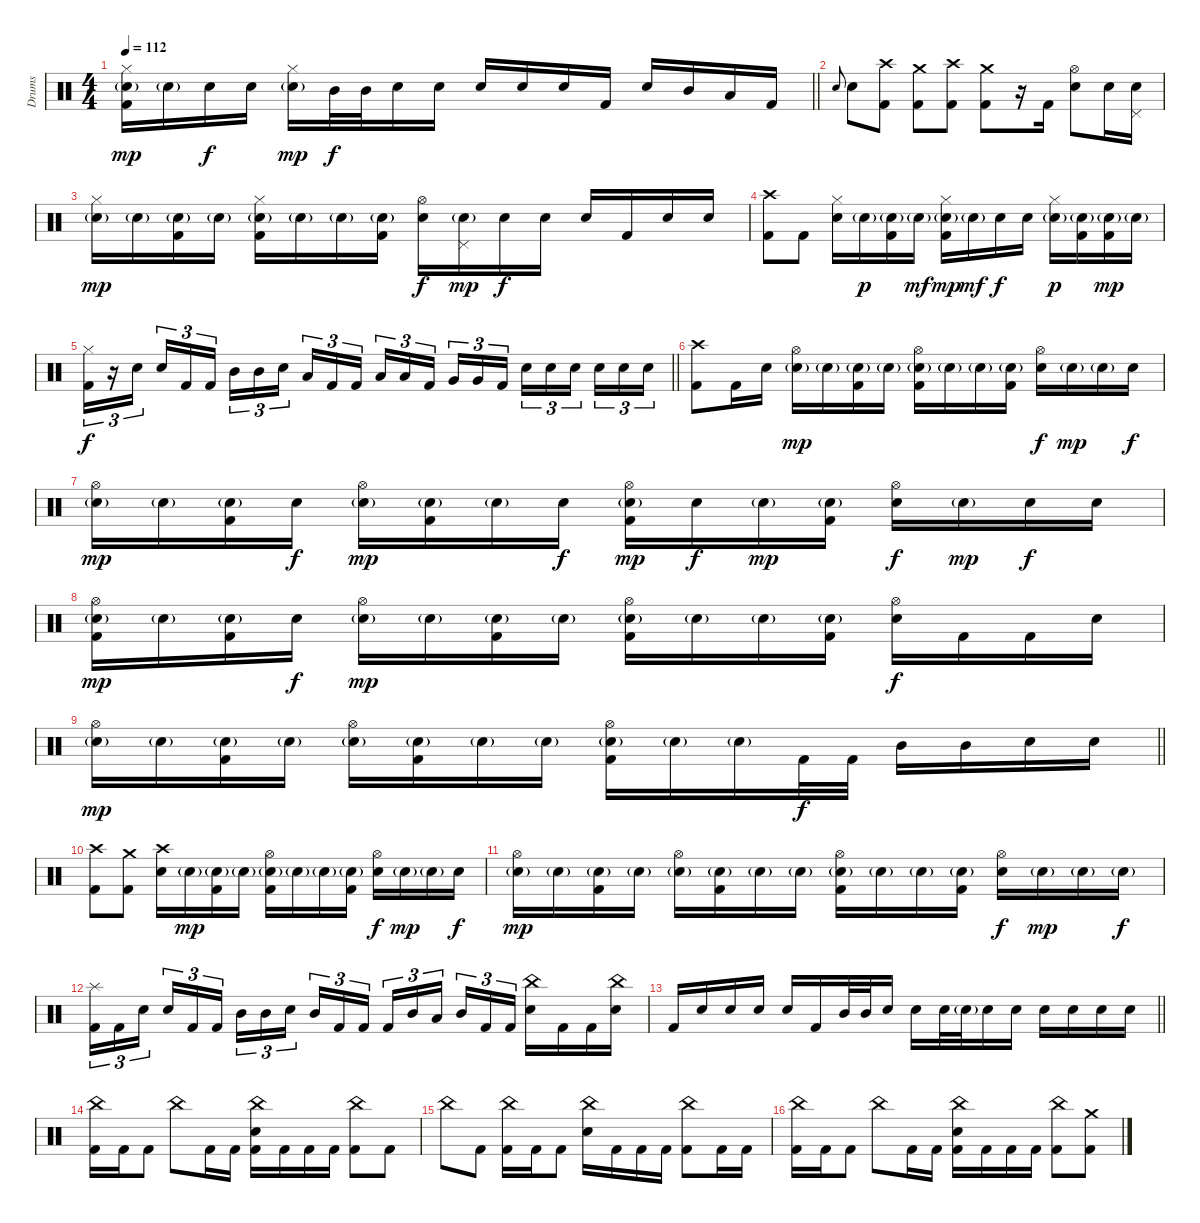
\track ("Drums" "Drums") {instrument percussion}
\staff {score}
\articulation defaults
\ts (4 4)
\tempo 112
\clef neutral
\barLineRight lightlight
\ks c
("Hi-Hat (closed)" "Electric Snare (hit)"{g} "Kick (hit) 2").16{dy mp} "Electric Snare (hit)"{g}.16 "Electric Snare (hit)".16{dy f} "Electric Snare (hit)".16 ("Hi-Hat (closed)" "Electric Snare (hit)"{g}).16{dy mp} "Mid Tom (hit)".32{dy f} "Mid Tom (hit)".32 "Electric Snare (hit)".16 "Electric Snare (hit)".16 "Electric Snare (hit)".16 "Electric Snare (hit)".16 "Electric Snare (hit)".16 "Kick (hit) 2".16 "Electric Snare (hit)".16 "Mid Tom (hit)".16 "Low Tom (hit)".16 "Kick (hit) 2".16 |
"Electric Snare (hit)".8{gr onbeat} "Electric Snare (hit)".8 ("Crash high (hit)" "Kick (hit) 2").8 ("Crash medium (hit)" "Kick (hit) 2").8 ("Crash high (hit)" "Kick (hit) 2").8 ("Crash medium (hit)" "Kick (hit) 2").8 r.16 "Kick (hit) 2".16 ("Hi-Hat (open)" "Electric Snare (hit)").8 "Electric Snare (hit)".16 ("Pedal Hi-Hat (hit)" "Electric Snare (hit)").16 |
("Hi-Hat (closed)" "Electric Snare (hit)"{g}).16{dy mp} "Electric Snare (hit)"{g}.16 ("Electric Snare (hit)"{g} "Kick (hit) 2").16 "Electric Snare (hit)"{g}.16 ("Hi-Hat (closed)" "Electric Snare (hit)"{g} "Kick (hit) 2").16 "Electric Snare (hit)"{g}.16 "Electric Snare (hit)"{g}.16 ("Electric Snare (hit)"{g} "Kick (hit) 2").16 ("Hi-Hat (open)" "Electric Snare (hit)").16{dy f} ("Pedal Hi-Hat (hit)" "Electric Snare (hit)"{g}).16{dy mp} "Electric Snare (hit)".16{dy f} "Electric Snare (hit)".16 "Electric Snare (hit)".16 "Kick (hit) 2".16 "Electric Snare (hit)".16 "Electric Snare (hit)".16 |
("Crash high (hit)" "Kick (hit) 2").8 "Kick (hit) 2".8 ("Hi-Hat (closed)" "Electric Snare (hit)").16 "Electric Snare (hit)"{g}.16{dy p} ("Electric Snare (hit)"{g} "Kick (hit) 2").16 "Electric Snare (hit)"{g}.16{dy mf} ("Hi-Hat (closed)" "Electric Snare (hit)"{g} "Kick (hit) 2").16{dy mp} "Electric Snare (hit)"{g}.16{dy mf} "Electric Snare (hit)".16{dy f} "Electric Snare (hit)".16 ("Hi-Hat (closed)" "Electric Snare (hit)"{g}).16{dy p} ("Electric Snare (hit)"{g} "Kick (hit) 2").16 ("Electric Snare (hit)"{g} "Kick (hit) 2").16{dy mp} "Electric Snare (hit)"{g}.16 |
\barLineRight lightlight
("Hi-Hat (closed)" "Kick (hit) 2").16{tu (3 2) dy f} r.16{tu (3 2)} "Electric Snare (hit)".16{tu (3 2) beam splitsecondary} "Electric Snare (hit)".16{tu (3 2)} "Kick (hit) 2".16{tu (3 2)} "Kick (hit) 2".16{tu (3 2)} "Mid Tom (hit)".16{tu (3 2)} "Mid Tom (hit)".16{tu (3 2)} "Electric Snare (hit)".16{tu (3 2) beam splitsecondary} "Low Tom (hit)".16{tu (3 2)} "Kick (hit) 2".16{tu (3 2)} "Kick (hit) 2".16{tu (3 2)} "Low Tom (hit)".16{tu (3 2)} "Low Tom (hit)".16{tu (3 2)} "Kick (hit) 2".16{tu (3 2) beam splitsecondary} "Very Low Tom (hit)".16{tu (3 2)} "Very Low Tom (hit)".16{tu (3 2)} "Kick (hit) 2".16{tu (3 2)} "Electric Snare (hit)".16{tu (3 2)} "Electric Snare (hit)".16{tu (3 2)} "Electric Snare (hit)".16{tu (3 2) beam splitsecondary} "Electric Snare (hit)".16{tu (3 2)} "Electric Snare (hit)".16{tu (3 2)} "Electric Snare (hit)".16{tu (3 2)} |
("Crash high (hit)" "Kick (hit) 2").8 "Kick (hit) 2".16 "Electric Snare (hit)".16 ("Hi-Hat (open)" "Electric Snare (hit)"{g}).16{dy mp} "Electric Snare (hit)"{g}.16 ("Electric Snare (hit)"{g} "Kick (hit) 2").16 "Electric Snare (hit)"{g}.16 ("Hi-Hat (open)" "Electric Snare (hit)"{g} "Kick (hit) 2").16 "Electric Snare (hit)"{g}.16 "Electric Snare (hit)"{g}.16 ("Electric Snare (hit)"{g} "Kick (hit) 2").16 ("Hi-Hat (open)" "Electric Snare (hit)").16{dy f} "Electric Snare (hit)"{g}.16{dy mp} "Electric Snare (hit)"{g}.16 "Electric Snare (hit)".16{dy f} |
("Hi-Hat (open)" "Electric Snare (hit)"{g}).16{dy mp} "Electric Snare (hit)"{g}.16 ("Electric Snare (hit)"{g} "Kick (hit) 2").16 "Electric Snare (hit)".16{dy f} ("Hi-Hat (open)" "Electric Snare (hit)"{g}).16{dy mp} ("Electric Snare (hit)"{g} "Kick (hit) 2").16 "Electric Snare (hit)"{g}.16 "Electric Snare (hit)".16{dy f} ("Hi-Hat (open)" "Electric Snare (hit)"{g} "Kick (hit) 2").16{dy mp} "Electric Snare (hit)".16{dy f} "Electric Snare (hit)"{g}.16{dy mp} ("Electric Snare (hit)"{g} "Kick (hit) 2").16 ("Hi-Hat (open)" "Electric Snare (hit)").16{dy f} "Electric Snare (hit)"{g}.16{dy mp} "Electric Snare (hit)".16{dy f} "Electric Snare (hit)".16 |
("Hi-Hat (open)" "Electric Snare (hit)"{g} "Kick (hit) 2").16{dy mp} "Electric Snare (hit)"{g}.16 ("Electric Snare (hit)"{g} "Kick (hit) 2").16 "Electric Snare (hit)".16{dy f} ("Hi-Hat (open)" "Electric Snare (hit)"{g}).16{dy mp} "Electric Snare (hit)"{g}.16 ("Electric Snare (hit)"{g} "Kick (hit) 2").16 "Electric Snare (hit)"{g}.16 ("Hi-Hat (open)" "Electric Snare (hit)"{g} "Kick (hit) 2").16 "Electric Snare (hit)"{g}.16 "Electric Snare (hit)"{g}.16 ("Electric Snare (hit)"{g} "Kick (hit) 2").16 ("Hi-Hat (open)" "Electric Snare (hit)").16{dy f} "Kick (hit) 2".16 "Kick (hit) 2".16 "Electric Snare (hit)".16 |
\barLineRight lightlight
("Hi-Hat (open)" "Electric Snare (hit)"{g}).16{dy mp} "Electric Snare (hit)"{g}.16 ("Electric Snare (hit)"{g} "Kick (hit) 2").16 "Electric Snare (hit)"{g}.16 ("Hi-Hat (open)" "Electric Snare (hit)"{g}).16 ("Electric Snare (hit)"{g} "Kick (hit) 2").16 "Electric Snare (hit)"{g}.16 "Electric Snare (hit)"{g}.16 ("Hi-Hat (open)" "Electric Snare (hit)"{g} "Kick (hit) 2").16 "Electric Snare (hit)"{g}.16 "Electric Snare (hit)"{g}.16 "Kick (hit) 2".32{dy f} "Kick (hit) 2".32 "Mid Tom (hit)".16 "Mid Tom (hit)".16 "Electric Snare (hit)".16 "Electric Snare (hit)".16 |
("Crash high (hit)" "Kick (hit) 2").8 ("Crash medium (hit)" "Kick (hit) 2").8 ("Crash high (hit)" "Electric Snare (hit)").16 "Electric Snare (hit)"{g}.16{dy mp} ("Electric Snare (hit)"{g} "Kick (hit) 2").16 "Electric Snare (hit)"{g}.16 ("Hi-Hat (open)" "Electric Snare (hit)"{g} "Kick (hit) 2").16 "Electric Snare (hit)"{g}.16 "Electric Snare (hit)"{g}.16 ("Electric Snare (hit)"{g} "Kick (hit) 2").16 ("Hi-Hat (open)" "Electric Snare (hit)").16{dy f} "Electric Snare (hit)"{g}.16{dy mp} "Electric Snare (hit)"{g}.16 "Electric Snare (hit)".16{dy f} |
("Hi-Hat (open)" "Electric Snare (hit)"{g}).16{dy mp} "Electric Snare (hit)"{g}.16 ("Electric Snare (hit)"{g} "Kick (hit) 2").16 "Electric Snare (hit)"{g}.16 ("Hi-Hat (open)" "Electric Snare (hit)"{g}).16 ("Electric Snare (hit)"{g} "Kick (hit) 2").16 "Electric Snare (hit)"{g}.16 "Electric Snare (hit)"{g}.16 ("Hi-Hat (open)" "Electric Snare (hit)"{g} "Kick (hit) 2").16 "Electric Snare (hit)"{g}.16 "Electric Snare (hit)"{g}.16 ("Electric Snare (hit)"{g} "Kick (hit) 2").16 ("Hi-Hat (open)" "Electric Snare (hit)").16{dy f} "Electric Snare (hit)"{g}.16{dy mp} "Electric Snare (hit)"{g}.16 "Electric Snare (hit)"{g}.16{dy f} |
("Splash (hit)" "Kick (hit) 2").16{tu (3 2)} "Kick (hit) 2".16{tu (3 2)} "Electric Snare (hit)".16{tu (3 2) beam splitsecondary} "Electric Snare (hit)".16{tu (3 2)} "Kick (hit) 2".16{tu (3 2)} "Kick (hit) 2".16{tu (3 2)} "Mid Tom (hit)".16{tu (3 2)} "Mid Tom (hit)".16{tu (3 2)} "Electric Snare (hit)".16{tu (3 2) beam splitsecondary} "Mid Tom (hit)".16{tu (3 2)} "Kick (hit) 2".16{tu (3 2)} "Kick (hit) 2".16{tu (3 2)} "Kick (hit) 2".16{tu (3 2)} "Mid Tom (hit)".16{tu (3 2)} "Low Tom (hit)".16{tu (3 2) beam splitsecondary} "Mid Tom (hit)".16{tu (3 2)} "Kick (hit) 2".16{tu (3 2)} "Kick (hit) 2".16{tu (3 2)} ("China (hit)" "Electric Snare (hit)").16 "Kick (hit) 2".16 "Kick (hit) 2".16 ("China (hit)" "Electric Snare (hit)").16 |
\barLineRight lightlight "Kick (hit) 2".16 "Electric Snare (hit)".16 "Electric Snare (hit)".16 "Electric Snare (hit)".16 "Electric Snare (hit)".16 "Kick (hit) 2".16 "Mid Tom (hit)".32 "Mid Tom (hit)".32 "Electric Snare (hit)".16 "Electric Snare (hit)".16 "Electric Snare (hit)".32 "Electric Snare (hit)"{g}.32 "Electric Snare (hit)".16 "Electric Snare (hit)".16 "Electric Snare (hit)".16 "Electric Snare (hit)".16 "Electric Snare (hit)".16 "Electric Snare (hit)".16
|
("China (hit)" "Kick (hit) 2").16 "Kick (hit) 2".16 "Kick (hit) 2".8 "China (hit)".8 "Kick (hit) 2".16 "Kick (hit) 2".16 ("China (hit)" "Electric Snare (hit)" "Kick (hit) 2").16 "Kick (hit) 2".16 "Kick (hit) 2".16 "Kick (hit) 2".16 ("China (hit)" "Kick (hit) 2").8 "Kick (hit) 2".8 |
"China (hit)".8 "Kick (hit) 2".8 ("China (hit)" "Kick (hit) 2").16 "Kick (hit) 2".16 "Kick (hit) 2".8 ("China (hit)" "Electric Snare (hit)").16 "Kick (hit) 2".16 "Kick (hit) 2".16 "Kick (hit) 2".16 ("China (hit)" "Kick (hit) 2").8 "Kick (hit) 2".16 "Kick (hit) 2".16 |
("China (hit)" "Kick (hit) 2").16 "Kick (hit) 2".16 "Kick (hit) 2".8 "China (hit)".8 "Kick (hit) 2".16 "Kick (hit) 2".16 ("China (hit)" "Electric Snare (hit)" "Kick (hit) 2").16 "Kick (hit) 2".16 "Kick (hit) 2".16 "Kick (hit) 2".16 ("China (hit)" "Kick (hit) 2").8 ("Crash medium (hit)" "Kick (hit) 2").8
